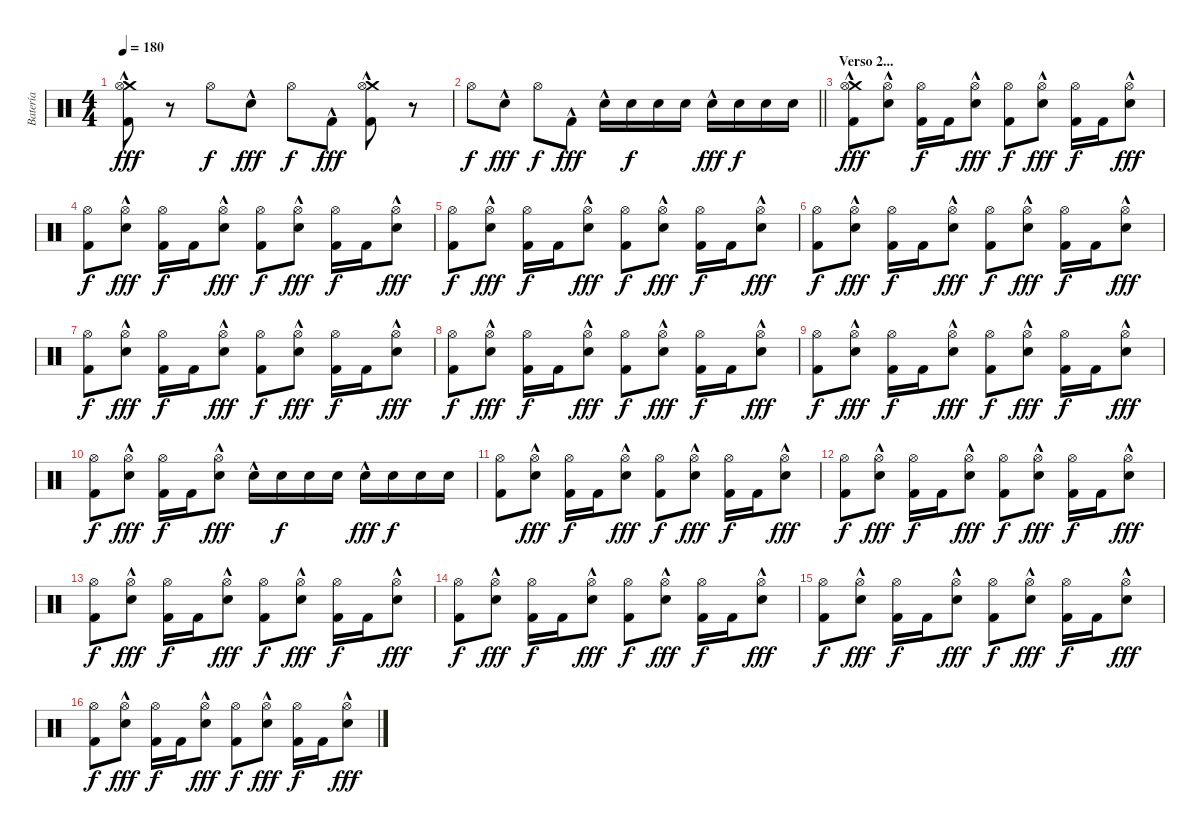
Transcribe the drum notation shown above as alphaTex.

\track ("Batería" "Batería") {instrument percussion}
\staff {score}
\articulation defaults
\ts (4 4)
\tempo 180
\clef neutral
\ks c
("Crash medium (hit)"{hac} "Hi-Hat (open)" "Kick (hit) 2"{hac}).8{dy fff} r.8 "Hi-Hat (open)".8{dy f} "Snare (hit) 2"{hac}.8{dy fff} "Hi-Hat (open)".8{dy f} "Kick (hit) 2"{hac}.8{dy fff} ("Crash medium (hit)"{hac} "Hi-Hat (open)" "Kick (hit) 2"{hac}).8 r.8 |
\barLineRight lightlight "Hi-Hat (open)".8{dy f} "Snare (hit) 2"{hac}.8{dy fff} "Hi-Hat (open)".8{dy f} "Kick (hit) 2"{hac}.8{dy fff} "Snare (hit) 2"{hac}.16 "Snare (hit) 2".16{dy f} "Snare (hit) 2".16 "Snare (hit) 2".16 "Snare (hit) 2"{hac}.16{dy fff} "Snare (hit) 2".16{dy f} "Snare (hit) 2".16 "Snare (hit) 2".16
|
\section ("" "Verso 2...")
("Crash medium (hit)"{hac} "Hi-Hat (open)" "Kick (hit) 2").8{dy fff} ("Snare (hit) 2"{hac} "Hi-Hat (open)").8 ("Hi-Hat (open)" "Kick (hit) 2").16{dy f} "Kick (hit) 2".16 ("Snare (hit) 2"{hac} "Hi-Hat (open)").8{dy fff} ("Hi-Hat (open)" "Kick (hit) 2").8{dy f} ("Snare (hit) 2"{hac} "Hi-Hat (open)").8{dy fff} ("Hi-Hat (open)" "Kick (hit) 2").16{dy f} "Kick (hit) 2".16 ("Snare (hit) 2"{hac} "Hi-Hat (open)").8{dy fff} |
("Hi-Hat (open)" "Kick (hit) 2").8{dy f} ("Snare (hit) 2"{hac} "Hi-Hat (open)").8{dy fff} ("Hi-Hat (open)" "Kick (hit) 2").16{dy f} "Kick (hit) 2".16 ("Snare (hit) 2"{hac} "Hi-Hat (open)").8{dy fff} ("Hi-Hat (open)" "Kick (hit) 2").8{dy f} ("Snare (hit) 2"{hac} "Hi-Hat (open)").8{dy fff} ("Hi-Hat (open)" "Kick (hit) 2").16{dy f} "Kick (hit) 2".16 ("Snare (hit) 2"{hac} "Hi-Hat (open)").8{dy fff} |
("Hi-Hat (open)" "Kick (hit) 2").8{dy f} ("Snare (hit) 2"{hac} "Hi-Hat (open)").8{dy fff} ("Hi-Hat (open)" "Kick (hit) 2").16{dy f} "Kick (hit) 2".16 ("Snare (hit) 2"{hac} "Hi-Hat (open)").8{dy fff} ("Hi-Hat (open)" "Kick (hit) 2").8{dy f} ("Snare (hit) 2"{hac} "Hi-Hat (open)").8{dy fff} ("Hi-Hat (open)" "Kick (hit) 2").16{dy f} "Kick (hit) 2".16 ("Snare (hit) 2"{hac} "Hi-Hat (open)").8{dy fff} |
("Hi-Hat (open)" "Kick (hit) 2").8{dy f} ("Snare (hit) 2"{hac} "Hi-Hat (open)").8{dy fff} ("Hi-Hat (open)" "Kick (hit) 2").16{dy f} "Kick (hit) 2".16 ("Snare (hit) 2"{hac} "Hi-Hat (open)").8{dy fff} ("Hi-Hat (open)" "Kick (hit) 2").8{dy f} ("Snare (hit) 2"{hac} "Hi-Hat (open)").8{dy fff} ("Hi-Hat (open)" "Kick (hit) 2").16{dy f} "Kick (hit) 2".16 ("Snare (hit) 2"{hac} "Hi-Hat (open)").8{dy fff} |
("Hi-Hat (open)" "Kick (hit) 2").8{dy f} ("Snare (hit) 2"{hac} "Hi-Hat (open)").8{dy fff} ("Hi-Hat (open)" "Kick (hit) 2").16{dy f} "Kick (hit) 2".16 ("Snare (hit) 2"{hac} "Hi-Hat (open)").8{dy fff} ("Hi-Hat (open)" "Kick (hit) 2").8{dy f} ("Snare (hit) 2"{hac} "Hi-Hat (open)").8{dy fff} ("Hi-Hat (open)" "Kick (hit) 2").16{dy f} "Kick (hit) 2".16 ("Snare (hit) 2"{hac} "Hi-Hat (open)").8{dy fff} |
("Hi-Hat (open)" "Kick (hit) 2").8{dy f} ("Snare (hit) 2"{hac} "Hi-Hat (open)").8{dy fff} ("Hi-Hat (open)" "Kick (hit) 2").16{dy f} "Kick (hit) 2".16 ("Snare (hit) 2"{hac} "Hi-Hat (open)").8{dy fff} ("Hi-Hat (open)" "Kick (hit) 2").8{dy f} ("Snare (hit) 2"{hac} "Hi-Hat (open)").8{dy fff} ("Hi-Hat (open)" "Kick (hit) 2").16{dy f} "Kick (hit) 2".16 ("Snare (hit) 2"{hac} "Hi-Hat (open)").8{dy fff} |
("Hi-Hat (open)" "Kick (hit) 2").8{dy f} ("Snare (hit) 2"{hac} "Hi-Hat (open)").8{dy fff} ("Hi-Hat (open)" "Kick (hit) 2").16{dy f} "Kick (hit) 2".16 ("Snare (hit) 2"{hac} "Hi-Hat (open)").8{dy fff} ("Hi-Hat (open)" "Kick (hit) 2").8{dy f} ("Snare (hit) 2"{hac} "Hi-Hat (open)").8{dy fff} ("Hi-Hat (open)" "Kick (hit) 2").16{dy f} "Kick (hit) 2".16 ("Snare (hit) 2"{hac} "Hi-Hat (open)").8{dy fff} |
("Hi-Hat (open)" "Kick (hit) 2").8{dy f} ("Snare (hit) 2"{hac} "Hi-Hat (open)").8{dy fff} ("Hi-Hat (open)" "Kick (hit) 2").16{dy f} "Kick (hit) 2".16 ("Snare (hit) 2"{hac} "Hi-Hat (open)").8{dy fff} "Snare (hit) 2"{hac}.16 "Snare (hit) 2".16{dy f} "Snare (hit) 2".16 "Snare (hit) 2".16 "Snare (hit) 2"{hac}.16{dy fff} "Snare (hit) 2".16{dy f} "Snare (hit) 2".16 "Snare (hit) 2".16 |
("Hi-Hat (open)" "Kick (hit) 2").8 ("Snare (hit) 2"{hac} "Hi-Hat (open)").8{dy fff} ("Hi-Hat (open)" "Kick (hit) 2").16{dy f} "Kick (hit) 2".16 ("Snare (hit) 2"{hac} "Hi-Hat (open)").8{dy fff} ("Hi-Hat (open)" "Kick (hit) 2").8{dy f} ("Snare (hit) 2"{hac} "Hi-Hat (open)").8{dy fff} ("Hi-Hat (open)" "Kick (hit) 2").16{dy f} "Kick (hit) 2".16 ("Snare (hit) 2"{hac} "Hi-Hat (open)").8{dy fff} |
("Hi-Hat (open)" "Kick (hit) 2").8{dy f} ("Snare (hit) 2"{hac} "Hi-Hat (open)").8{dy fff} ("Hi-Hat (open)" "Kick (hit) 2").16{dy f} "Kick (hit) 2".16 ("Snare (hit) 2"{hac} "Hi-Hat (open)").8{dy fff} ("Hi-Hat (open)" "Kick (hit) 2").8{dy f} ("Snare (hit) 2"{hac} "Hi-Hat (open)").8{dy fff} ("Hi-Hat (open)" "Kick (hit) 2").16{dy f} "Kick (hit) 2".16 ("Snare (hit) 2"{hac} "Hi-Hat (open)").8{dy fff} |
("Hi-Hat (open)" "Kick (hit) 2").8{dy f} ("Snare (hit) 2"{hac} "Hi-Hat (open)").8{dy fff} ("Hi-Hat (open)" "Kick (hit) 2").16{dy f} "Kick (hit) 2".16 ("Snare (hit) 2"{hac} "Hi-Hat (open)").8{dy fff} ("Hi-Hat (open)" "Kick (hit) 2").8{dy f} ("Snare (hit) 2"{hac} "Hi-Hat (open)").8{dy fff} ("Hi-Hat (open)" "Kick (hit) 2").16{dy f} "Kick (hit) 2".16 ("Snare (hit) 2"{hac} "Hi-Hat (open)").8{dy fff} |
("Hi-Hat (open)" "Kick (hit) 2").8{dy f} ("Snare (hit) 2"{hac} "Hi-Hat (open)").8{dy fff} ("Hi-Hat (open)" "Kick (hit) 2").16{dy f} "Kick (hit) 2".16 ("Snare (hit) 2"{hac} "Hi-Hat (open)").8{dy fff} ("Hi-Hat (open)" "Kick (hit) 2").8{dy f} ("Snare (hit) 2"{hac} "Hi-Hat (open)").8{dy fff} ("Hi-Hat (open)" "Kick (hit) 2").16{dy f} "Kick (hit) 2".16 ("Snare (hit) 2"{hac} "Hi-Hat (open)").8{dy fff} |
("Hi-Hat (open)" "Kick (hit) 2").8{dy f} ("Snare (hit) 2"{hac} "Hi-Hat (open)").8{dy fff} ("Hi-Hat (open)" "Kick (hit) 2").16{dy f} "Kick (hit) 2".16 ("Snare (hit) 2"{hac} "Hi-Hat (open)").8{dy fff} ("Hi-Hat (open)" "Kick (hit) 2").8{dy f} ("Snare (hit) 2"{hac} "Hi-Hat (open)").8{dy fff} ("Hi-Hat (open)" "Kick (hit) 2").16{dy f} "Kick (hit) 2".16 ("Snare (hit) 2"{hac} "Hi-Hat (open)").8{dy fff} |
("Hi-Hat (open)" "Kick (hit) 2").8{dy f} ("Snare (hit) 2"{hac} "Hi-Hat (open)").8{dy fff} ("Hi-Hat (open)" "Kick (hit) 2").16{dy f} "Kick (hit) 2".16 ("Snare (hit) 2"{hac} "Hi-Hat (open)").8{dy fff} ("Hi-Hat (open)" "Kick (hit) 2").8{dy f} ("Snare (hit) 2"{hac} "Hi-Hat (open)").8{dy fff} ("Hi-Hat (open)" "Kick (hit) 2").16{dy f} "Kick (hit) 2".16 ("Snare (hit) 2"{hac} "Hi-Hat (open)").8{dy fff}
